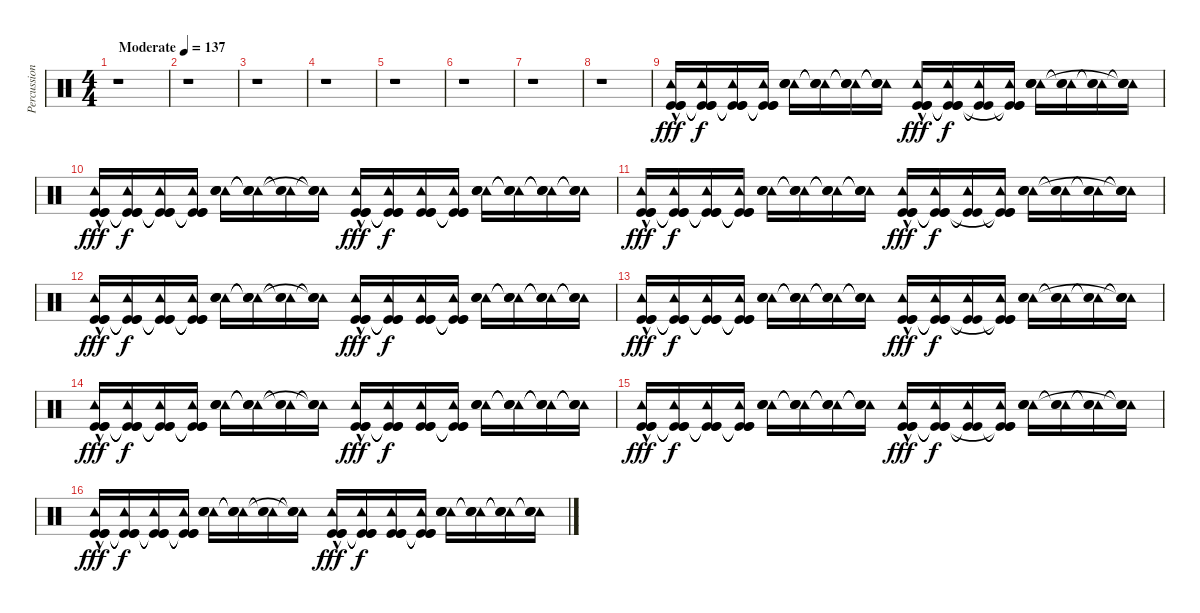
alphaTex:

\track ("Percussion" "Percussion") {instrument percussion}
\staff {score}
\articulation defaults
\ts (4 4)
\tempo (137 "Moderate")
\clef neutral
\ks c
r.1{dy fff} |
r.1 |
r.1 |
r.1 |
r.1 |
r.1 |
r.1 |
r.1 |
("Tambourine (hit)"{hac} "Kick (hit)" "Kick (hit)" "Kick (hit)").16 ("Tambourine (hit)" "Kick (hit)"{t} "Kick (hit)"{t} "Kick (hit)"{t}).16{dy f} ("Tambourine (hit)" "Kick (hit)"{t} "Kick (hit)"{t} "Kick (hit)"{t}).16 ("Tambourine (hit)" "Kick (hit)"{t} "Kick (hit)"{t} "Kick (hit)"{t}).16 ("Tambourine (hit)" "Snare (hit) 2" "Snare (hit) 2" "Snare (hit) 2").16 ("Tambourine (hit)" "Snare (hit) 2"{t} "Snare (hit) 2"{t} "Snare (hit) 2"{t}).16 ("Tambourine (hit)" "Snare (hit) 2"{t} "Snare (hit) 2"{t} "Snare (hit) 2"{t}).16 ("Tambourine (hit)" "Snare (hit) 2"{t} "Snare (hit) 2"{t} "Snare (hit) 2"{t}).16 ("Tambourine (hit)"{hac} "Kick (hit)" "Kick (hit)" "Kick (hit)").16{dy fff} ("Tambourine (hit)" "Kick (hit)"{t} "Kick (hit)"{t} "Kick (hit)"{t}).16{dy f} ("Tambourine (hit)" "Kick (hit)"{t} "Kick (hit)"{t}).16 ("Tambourine (hit)" "Kick (hit)"{t} "Kick (hit)"{t} "Kick (hit)"{t}).16 ("Tambourine (hit)" "Snare (hit) 2" "Snare (hit) 2" "Snare (hit) 2").16 ("Tambourine (hit)" "Snare (hit) 2"{t} "Snare (hit) 2"{t}).16 ("Tambourine (hit)" "Snare (hit) 2"{t} "Snare (hit) 2"{t}).16 ("Tambourine (hit)" "Snare (hit) 2"{t} "Snare (hit) 2"{t} "Snare (hit) 2"{t}).16 |
("Tambourine (hit)"{hac} "Kick (hit)" "Kick (hit)" "Kick (hit)").16{dy fff} ("Tambourine (hit)" "Kick (hit)"{t} "Kick (hit)"{t} "Kick (hit)"{t}).16{dy f} ("Tambourine (hit)" "Kick (hit)"{t} "Kick (hit)"{t} "Kick (hit)"{t}).16 ("Tambourine (hit)" "Kick (hit)"{t} "Kick (hit)"{t} "Kick (hit)"{t}).16 ("Tambourine (hit)" "Snare (hit) 2" "Snare (hit) 2" "Snare (hit) 2").16 ("Tambourine (hit)" "Snare (hit) 2"{t} "Snare (hit) 2"{t} "Snare (hit) 2"{t}).16 ("Tambourine (hit)" "Snare (hit) 2"{t} "Snare (hit) 2"{t}).16 ("Tambourine (hit)" "Snare (hit) 2"{t} "Snare (hit) 2"{t} "Snare (hit) 2"{t}).16 ("Tambourine (hit)"{hac} "Kick (hit)" "Kick (hit)" "Kick (hit)").16{dy fff} ("Tambourine (hit)" "Kick (hit)"{t} "Kick (hit)"{t} "Kick (hit)"{t}).16{dy f} ("Tambourine (hit)" "Kick (hit)" "Kick (hit)" "Kick (hit)").16 ("Tambourine (hit)" "Kick (hit)"{t} "Kick (hit)"{t} "Kick (hit)"{t}).16 ("Tambourine (hit)" "Snare (hit) 2" "Snare (hit) 2" "Snare (hit) 2").16 ("Tambourine (hit)" "Snare (hit) 2"{t} "Snare (hit) 2"{t} "Snare (hit) 2"{t}).16 ("Tambourine (hit)" "Snare (hit) 2"{t} "Snare (hit) 2"{t} "Snare (hit) 2"{t}).16 ("Tambourine (hit)" "Snare (hit) 2"{t} "Snare (hit) 2"{t} "Snare (hit) 2"{t}).16 |
("Tambourine (hit)"{hac} "Kick (hit)" "Kick (hit)" "Kick (hit)").16{dy fff} ("Tambourine (hit)" "Kick (hit)"{t} "Kick (hit)"{t} "Kick (hit)"{t}).16{dy f} ("Tambourine (hit)" "Kick (hit)"{t} "Kick (hit)"{t} "Kick (hit)"{t}).16 ("Tambourine (hit)" "Kick (hit)"{t} "Kick (hit)"{t} "Kick (hit)"{t}).16 ("Tambourine (hit)" "Snare (hit) 2" "Snare (hit) 2" "Snare (hit) 2").16 ("Tambourine (hit)" "Snare (hit) 2"{t} "Snare (hit) 2"{t} "Snare (hit) 2"{t}).16 ("Tambourine (hit)" "Snare (hit) 2"{t} "Snare (hit) 2"{t} "Snare (hit) 2"{t}).16 ("Tambourine (hit)" "Snare (hit) 2"{t} "Snare (hit) 2"{t} "Snare (hit) 2"{t}).16 ("Tambourine (hit)"{hac} "Kick (hit)" "Kick (hit)" "Kick (hit)").16{dy fff} ("Tambourine (hit)" "Kick (hit)"{t} "Kick (hit)"{t} "Kick (hit)"{t}).16{dy f} ("Tambourine (hit)" "Kick (hit)"{t} "Kick (hit)"{t}).16 ("Tambourine (hit)" "Kick (hit)"{t} "Kick (hit)"{t} "Kick (hit)"{t}).16 ("Tambourine (hit)" "Snare (hit) 2" "Snare (hit) 2" "Snare (hit) 2").16 ("Tambourine (hit)" "Snare (hit) 2"{t} "Snare (hit) 2"{t}).16 ("Tambourine (hit)" "Snare (hit) 2"{t} "Snare (hit) 2"{t}).16 ("Tambourine (hit)" "Snare (hit) 2"{t} "Snare (hit) 2"{t} "Snare (hit) 2"{t}).16 |
("Tambourine (hit)"{hac} "Kick (hit)" "Kick (hit)" "Kick (hit)").16{dy fff} ("Tambourine (hit)" "Kick (hit)"{t} "Kick (hit)"{t} "Kick (hit)"{t}).16{dy f} ("Tambourine (hit)" "Kick (hit)"{t} "Kick (hit)"{t} "Kick (hit)"{t}).16 ("Tambourine (hit)" "Kick (hit)"{t} "Kick (hit)"{t} "Kick (hit)"{t}).16 ("Tambourine (hit)" "Snare (hit) 2" "Snare (hit) 2" "Snare (hit) 2").16 ("Tambourine (hit)" "Snare (hit) 2"{t} "Snare (hit) 2"{t} "Snare (hit) 2"{t}).16 ("Tambourine (hit)" "Snare (hit) 2"{t} "Snare (hit) 2"{t}).16 ("Tambourine (hit)" "Snare (hit) 2"{t} "Snare (hit) 2"{t} "Snare (hit) 2"{t}).16 ("Tambourine (hit)"{hac} "Kick (hit)" "Kick (hit)" "Kick (hit)").16{dy fff} ("Tambourine (hit)" "Kick (hit)"{t} "Kick (hit)"{t} "Kick (hit)"{t}).16{dy f} ("Tambourine (hit)" "Kick (hit)" "Kick (hit)" "Kick (hit)").16 ("Tambourine (hit)" "Kick (hit)"{t} "Kick (hit)"{t} "Kick (hit)"{t}).16 ("Tambourine (hit)" "Snare (hit) 2" "Snare (hit) 2" "Snare (hit) 2").16 ("Tambourine (hit)" "Snare (hit) 2"{t} "Snare (hit) 2"{t} "Snare (hit) 2"{t}).16 ("Tambourine (hit)" "Snare (hit) 2"{t} "Snare (hit) 2"{t} "Snare (hit) 2"{t}).16 ("Tambourine (hit)" "Snare (hit) 2"{t} "Snare (hit) 2"{t} "Snare (hit) 2"{t}).16 |
("Tambourine (hit)"{hac} "Kick (hit)" "Kick (hit)" "Kick (hit)").16{dy fff} ("Tambourine (hit)" "Kick (hit)"{t} "Kick (hit)"{t} "Kick (hit)"{t}).16{dy f} ("Tambourine (hit)" "Kick (hit)"{t} "Kick (hit)"{t} "Kick (hit)"{t}).16 ("Tambourine (hit)" "Kick (hit)"{t} "Kick (hit)"{t} "Kick (hit)"{t}).16 ("Tambourine (hit)" "Snare (hit) 2" "Snare (hit) 2" "Snare (hit) 2").16 ("Tambourine (hit)" "Snare (hit) 2"{t} "Snare (hit) 2"{t} "Snare (hit) 2"{t}).16 ("Tambourine (hit)" "Snare (hit) 2"{t} "Snare (hit) 2"{t} "Snare (hit) 2"{t}).16 ("Tambourine (hit)" "Snare (hit) 2"{t} "Snare (hit) 2"{t} "Snare (hit) 2"{t}).16 ("Tambourine (hit)"{hac} "Kick (hit)" "Kick (hit)" "Kick (hit)").16{dy fff} ("Tambourine (hit)" "Kick (hit)"{t} "Kick (hit)"{t} "Kick (hit)"{t}).16{dy f} ("Tambourine (hit)" "Kick (hit)"{t} "Kick (hit)"{t}).16 ("Tambourine (hit)" "Kick (hit)"{t} "Kick (hit)"{t} "Kick (hit)"{t}).16 ("Tambourine (hit)" "Snare (hit) 2" "Snare (hit) 2" "Snare (hit) 2").16 ("Tambourine (hit)" "Snare (hit) 2"{t} "Snare (hit) 2"{t}).16 ("Tambourine (hit)" "Snare (hit) 2"{t} "Snare (hit) 2"{t}).16 ("Tambourine (hit)" "Snare (hit) 2"{t} "Snare (hit) 2"{t} "Snare (hit) 2"{t}).16 |
("Tambourine (hit)"{hac} "Kick (hit)" "Kick (hit)" "Kick (hit)").16{dy fff} ("Tambourine (hit)" "Kick (hit)"{t} "Kick (hit)"{t} "Kick (hit)"{t}).16{dy f} ("Tambourine (hit)" "Kick (hit)"{t} "Kick (hit)"{t} "Kick (hit)"{t}).16 ("Tambourine (hit)" "Kick (hit)"{t} "Kick (hit)"{t} "Kick (hit)"{t}).16 ("Tambourine (hit)" "Snare (hit) 2" "Snare (hit) 2" "Snare (hit) 2").16 ("Tambourine (hit)" "Snare (hit) 2"{t} "Snare (hit) 2"{t} "Snare (hit) 2"{t}).16 ("Tambourine (hit)" "Snare (hit) 2"{t} "Snare (hit) 2"{t}).16 ("Tambourine (hit)" "Snare (hit) 2"{t} "Snare (hit) 2"{t} "Snare (hit) 2"{t}).16 ("Tambourine (hit)"{hac} "Kick (hit)" "Kick (hit)" "Kick (hit)").16{dy fff} ("Tambourine (hit)" "Kick (hit)"{t} "Kick (hit)"{t} "Kick (hit)"{t}).16{dy f} ("Tambourine (hit)" "Kick (hit)" "Kick (hit)" "Kick (hit)").16 ("Tambourine (hit)" "Kick (hit)"{t} "Kick (hit)"{t} "Kick (hit)"{t}).16 ("Tambourine (hit)" "Snare (hit) 2" "Snare (hit) 2" "Snare (hit) 2").16 ("Tambourine (hit)" "Snare (hit) 2"{t} "Snare (hit) 2"{t} "Snare (hit) 2"{t}).16 ("Tambourine (hit)" "Snare (hit) 2"{t} "Snare (hit) 2"{t} "Snare (hit) 2"{t}).16 ("Tambourine (hit)" "Snare (hit) 2"{t} "Snare (hit) 2"{t} "Snare (hit) 2"{t}).16 |
("Tambourine (hit)"{hac} "Kick (hit)" "Kick (hit)" "Kick (hit)").16{dy fff} ("Tambourine (hit)" "Kick (hit)"{t} "Kick (hit)"{t} "Kick (hit)"{t}).16{dy f} ("Tambourine (hit)" "Kick (hit)"{t} "Kick (hit)"{t} "Kick (hit)"{t}).16 ("Tambourine (hit)" "Kick (hit)"{t} "Kick (hit)"{t} "Kick (hit)"{t}).16 ("Tambourine (hit)" "Snare (hit) 2" "Snare (hit) 2" "Snare (hit) 2").16 ("Tambourine (hit)" "Snare (hit) 2"{t} "Snare (hit) 2"{t} "Snare (hit) 2"{t}).16 ("Tambourine (hit)" "Snare (hit) 2"{t} "Snare (hit) 2"{t} "Snare (hit) 2"{t}).16 ("Tambourine (hit)" "Snare (hit) 2"{t} "Snare (hit) 2"{t} "Snare (hit) 2"{t}).16 ("Tambourine (hit)"{hac} "Kick (hit)" "Kick (hit)" "Kick (hit)").16{dy fff} ("Tambourine (hit)" "Kick (hit)"{t} "Kick (hit)"{t} "Kick (hit)"{t}).16{dy f} ("Tambourine (hit)" "Kick (hit)"{t} "Kick (hit)"{t}).16 ("Tambourine (hit)" "Kick (hit)"{t} "Kick (hit)"{t} "Kick (hit)"{t}).16 ("Tambourine (hit)" "Snare (hit) 2" "Snare (hit) 2" "Snare (hit) 2").16 ("Tambourine (hit)" "Snare (hit) 2"{t} "Snare (hit) 2"{t}).16 ("Tambourine (hit)" "Snare (hit) 2"{t} "Snare (hit) 2"{t}).16 ("Tambourine (hit)" "Snare (hit) 2"{t} "Snare (hit) 2"{t} "Snare (hit) 2"{t}).16 |
("Tambourine (hit)"{hac} "Kick (hit)" "Kick (hit)" "Kick (hit)").16{dy fff} ("Tambourine (hit)" "Kick (hit)"{t} "Kick (hit)"{t} "Kick (hit)"{t}).16{dy f} ("Tambourine (hit)" "Kick (hit)"{t} "Kick (hit)"{t} "Kick (hit)"{t}).16 ("Tambourine (hit)" "Kick (hit)"{t} "Kick (hit)"{t} "Kick (hit)"{t}).16 ("Tambourine (hit)" "Snare (hit) 2" "Snare (hit) 2" "Snare (hit) 2").16 ("Tambourine (hit)" "Snare (hit) 2"{t} "Snare (hit) 2"{t} "Snare (hit) 2"{t}).16 ("Tambourine (hit)" "Snare (hit) 2"{t} "Snare (hit) 2"{t}).16 ("Tambourine (hit)" "Snare (hit) 2"{t} "Snare (hit) 2"{t} "Snare (hit) 2"{t}).16 ("Tambourine (hit)"{hac} "Kick (hit)" "Kick (hit)" "Kick (hit)").16{dy fff} ("Tambourine (hit)" "Kick (hit)"{t} "Kick (hit)"{t} "Kick (hit)"{t}).16{dy f} ("Tambourine (hit)" "Kick (hit)" "Kick (hit)" "Kick (hit)").16 ("Tambourine (hit)" "Kick (hit)"{t} "Kick (hit)"{t} "Kick (hit)"{t}).16 ("Tambourine (hit)" "Snare (hit) 2" "Snare (hit) 2" "Snare (hit) 2").16 ("Tambourine (hit)" "Snare (hit) 2"{t} "Snare (hit) 2"{t} "Snare (hit) 2"{t}).16 ("Tambourine (hit)" "Snare (hit) 2"{t} "Snare (hit) 2"{t} "Snare (hit) 2"{t}).16 ("Tambourine (hit)" "Snare (hit) 2"{t} "Snare (hit) 2"{t} "Snare (hit) 2"{t}).16
